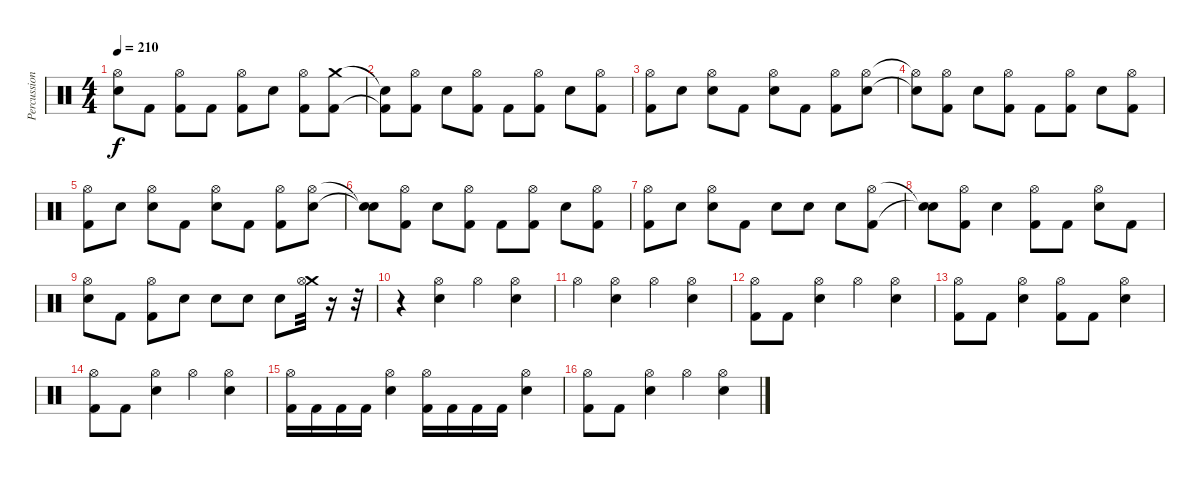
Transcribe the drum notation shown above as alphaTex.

\track ("Percussion" "Percussion") {instrument percussion}
\staff {score}
\articulation defaults
\ts (4 4)
\tempo 210
\clef neutral
\ks c
("Hi-Hat (open)" "Electric Snare (hit)").8{dy f} "Kick (hit) 2".8 ("Hi-Hat (open)" "Kick (hit) 2").8 "Kick (hit) 2".8 ("Hi-Hat (open)" "Kick (hit) 2").8 "Electric Snare (hit)".8 ("Hi-Hat (open)" "Kick (hit) 2").8 ("Crash medium (hit)" "Kick (hit) 2").8 |
("Snare (hit)"{t} "Kick (hit) 2"{t}).8 ("Hi-Hat (open)" "Kick (hit) 2").8 "Electric Snare (hit)".8 ("Hi-Hat (open)" "Kick (hit) 2").8 "Kick (hit) 2".8 ("Hi-Hat (open)" "Kick (hit) 2").8 "Electric Snare (hit)".8 ("Hi-Hat (open)" "Kick (hit) 2").8 |
("Hi-Hat (open)" "Kick (hit) 2").8 "Electric Snare (hit)".8 ("Hi-Hat (open)" "Electric Snare (hit)").8 "Kick (hit) 2".8 ("Hi-Hat (open)" "Electric Snare (hit)").8 "Kick (hit) 2".8 ("Hi-Hat (open)" "Kick (hit) 2").8 ("Hi-Hat (open)" "Electric Snare (hit)").8 |
("Hi-Hat (open)"{t} "Electric Snare (hit)"{t}).8 ("Hi-Hat (open)" "Kick (hit) 2").8 "Electric Snare (hit)".8 ("Hi-Hat (open)" "Kick (hit) 2").8 "Kick (hit) 2".8 ("Hi-Hat (open)" "Kick (hit) 2").8 "Electric Snare (hit)".8 ("Hi-Hat (open)" "Kick (hit) 2").8 |
("Hi-Hat (open)" "Kick (hit) 2").8 "Electric Snare (hit)".8 ("Hi-Hat (open)" "Electric Snare (hit)").8 "Kick (hit) 2".8 ("Hi-Hat (open)" "Electric Snare (hit)").8 "Kick (hit) 2".8 ("Hi-Hat (open)" "Kick (hit) 2").8 ("Hi-Hat (open)" "Electric Snare (hit)").8 |
("Snare (hit)"{t} "Snare (hit)"{t}).8 ("Hi-Hat (open)" "Kick (hit) 2").8 "Electric Snare (hit)".8 ("Hi-Hat (open)" "Kick (hit) 2").8 "Kick (hit) 2".8 ("Hi-Hat (open)" "Kick (hit) 2").8 "Electric Snare (hit)".8 ("Hi-Hat (open)" "Kick (hit) 2").8 |
("Hi-Hat (open)" "Kick (hit) 2").8 "Electric Snare (hit)".8 ("Hi-Hat (open)" "Electric Snare (hit)").8 "Kick (hit) 2".8 "Electric Snare (hit)".8 "Electric Snare (hit)".8 "Electric Snare (hit)".8 ("Hi-Hat (open)" "Kick (hit) 2").8 |
("Snare (hit)"{t} "Snare (hit)"{t}).8 ("Hi-Hat (open)" "Kick (hit) 2").8 "Electric Snare (hit)".4 ("Hi-Hat (open)" "Kick (hit) 2").8 "Kick (hit) 2".8 ("Hi-Hat (open)" "Electric Snare (hit)").8 "Kick (hit) 2".8 |
("Hi-Hat (open)" "Electric Snare (hit)").8 "Kick (hit) 2".8 ("Hi-Hat (open)" "Kick (hit) 2").8 "Electric Snare (hit)".8 "Electric Snare (hit)".8 "Electric Snare (hit)".8 "Electric Snare (hit)".8 ("Crash medium (hit)" "Hi-Hat (open)").32 r.16 r.32 |
r.4 ("Hi-Hat (open)" "Electric Snare (hit)").4 "Hi-Hat (open)".4 ("Hi-Hat (open)" "Electric Snare (hit)").4 |
"Hi-Hat (open)".4 ("Hi-Hat (open)" "Electric Snare (hit)").4 "Hi-Hat (open)".4 ("Hi-Hat (open)" "Electric Snare (hit)").4 |
("Hi-Hat (open)" "Kick (hit) 2").8 "Kick (hit) 2".8 ("Hi-Hat (open)" "Electric Snare (hit)").4 "Hi-Hat (open)".4 ("Hi-Hat (open)" "Electric Snare (hit)").4 |
("Hi-Hat (open)" "Kick (hit) 2").8 "Kick (hit) 2".8 ("Hi-Hat (open)" "Electric Snare (hit)").4 ("Hi-Hat (open)" "Kick (hit) 2").8 "Kick (hit) 2".8 ("Hi-Hat (open)" "Electric Snare (hit)").4 |
("Hi-Hat (open)" "Kick (hit) 2").8 "Kick (hit) 2".8 ("Hi-Hat (open)" "Electric Snare (hit)").4 "Hi-Hat (open)".4 ("Hi-Hat (open)" "Electric Snare (hit)").4 |
("Hi-Hat (open)" "Kick (hit) 2").16 "Kick (hit) 2".16 "Kick (hit) 2".16 "Kick (hit) 2".16 ("Hi-Hat (open)" "Electric Snare (hit)").4 ("Hi-Hat (open)" "Kick (hit) 2").16 "Kick (hit) 2".16 "Kick (hit) 2".16 "Kick (hit) 2".16 ("Hi-Hat (open)" "Electric Snare (hit)").4 |
("Hi-Hat (open)" "Kick (hit) 2").8 "Kick (hit) 2".8 ("Hi-Hat (open)" "Electric Snare (hit)").4 "Hi-Hat (open)".4 ("Hi-Hat (open)" "Electric Snare (hit)").4
